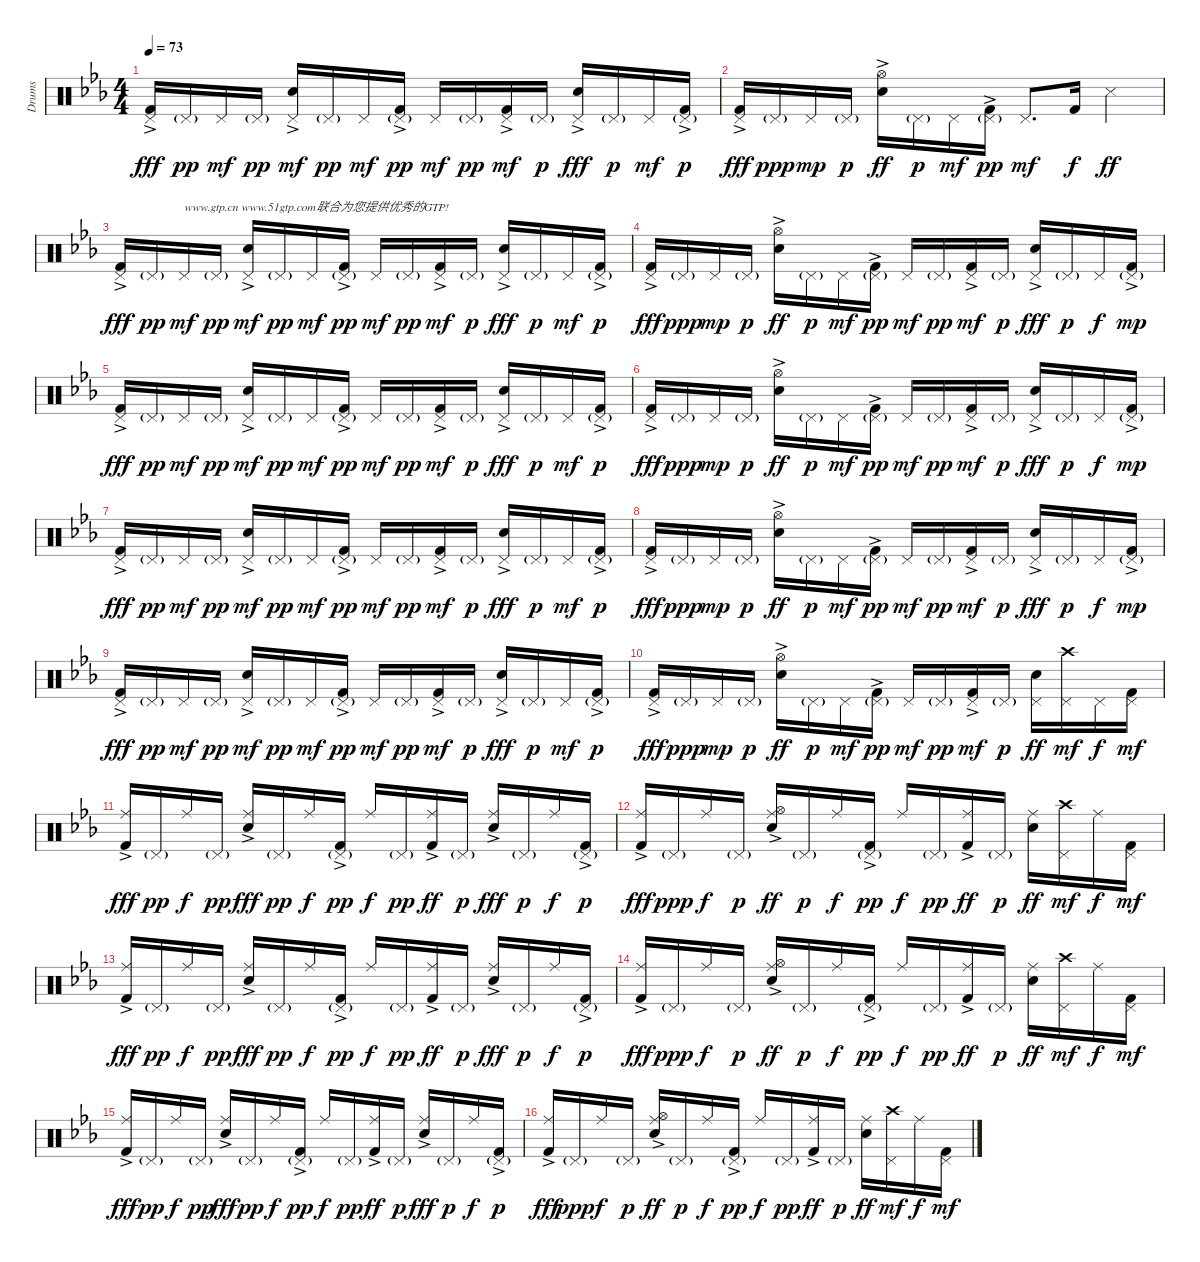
\track ("Drums" "Drums") {instrument percussion}
\staff {score}
\articulation defaults
\ts (4 4)
\tempo 73
\clef neutral
\ks eb
("Kick (hit) 2"{ac} "Pedal Hi-Hat (hit)").16{dy fff} "Pedal Hi-Hat (hit)"{g}.16{dy pp} "Pedal Hi-Hat (hit)".16{dy mf} "Pedal Hi-Hat (hit)"{g}.16{dy pp} ("Snare (hit) 2"{ac} "Pedal Hi-Hat (hit)").16{dy mf} "Pedal Hi-Hat (hit)"{g}.16{dy pp} "Pedal Hi-Hat (hit)".16{dy mf} ("Kick (hit) 2"{ac} "Pedal Hi-Hat (hit)"{g}).16{dy pp} "Pedal Hi-Hat (hit)".16{dy mf} "Pedal Hi-Hat (hit)"{g}.16{dy pp} ("Kick (hit) 2"{ac} "Pedal Hi-Hat (hit)").16{dy mf} "Pedal Hi-Hat (hit)"{g}.16{dy p} ("Snare (hit) 2"{ac} "Pedal Hi-Hat (hit)").16{dy fff} "Pedal Hi-Hat (hit)"{g}.16{dy p} "Pedal Hi-Hat (hit)".16{dy mf} ("Kick (hit) 2"{ac} "Pedal Hi-Hat (hit)"{g}).16{dy p} |
("Kick (hit) 2"{ac} "Pedal Hi-Hat (hit)").16{dy fff} "Pedal Hi-Hat (hit)"{g}.16{dy ppp} "Pedal Hi-Hat (hit)".16{dy mp} "Pedal Hi-Hat (hit)"{g}.16{dy p} ("Snare (hit) 2"{ac} "Hi-Hat (open)").16{dy ff} "Pedal Hi-Hat (hit)"{g}.16{dy p} "Pedal Hi-Hat (hit)".16{dy mf} ("Kick (hit) 2"{ac} "Pedal Hi-Hat (hit)"{g}).16{dy pp} "Pedal Hi-Hat (hit)".8{d dy mf} "Kick (hit) 2".16{dy f} "Snare (side stick) 3".4{dy ff} |
("Kick (hit) 2"{ac} "Pedal Hi-Hat (hit)").16{dy fff} "Pedal Hi-Hat (hit)"{g}.16{dy pp} "Pedal Hi-Hat (hit)".16{txt "www.gtp.cn www.51gtp.com联合为您提供优秀的GTP!" dy mf} "Pedal Hi-Hat (hit)"{g}.16{dy pp} ("Snare (hit) 2"{ac} "Pedal Hi-Hat (hit)").16{dy mf} "Pedal Hi-Hat (hit)"{g}.16{dy pp} "Pedal Hi-Hat (hit)".16{dy mf} ("Kick (hit) 2"{ac} "Pedal Hi-Hat (hit)"{g}).16{dy pp} "Pedal Hi-Hat (hit)".16{dy mf} "Pedal Hi-Hat (hit)"{g}.16{dy pp} ("Kick (hit) 2"{ac} "Pedal Hi-Hat (hit)").16{dy mf} "Pedal Hi-Hat (hit)"{g}.16{dy p} ("Snare (hit) 2"{ac} "Pedal Hi-Hat (hit)").16{dy fff} "Pedal Hi-Hat (hit)"{g}.16{dy p} "Pedal Hi-Hat (hit)".16{dy mf} ("Kick (hit) 2"{ac} "Pedal Hi-Hat (hit)"{g}).16{dy p} |
("Kick (hit) 2"{ac} "Pedal Hi-Hat (hit)").16{dy fff} "Pedal Hi-Hat (hit)"{g}.16{dy ppp} "Pedal Hi-Hat (hit)".16{dy mp} "Pedal Hi-Hat (hit)"{g}.16{dy p} ("Snare (hit) 2"{ac} "Hi-Hat (open)").16{dy ff} "Pedal Hi-Hat (hit)"{g}.16{dy p} "Pedal Hi-Hat (hit)".16{dy mf} ("Kick (hit) 2"{ac} "Pedal Hi-Hat (hit)"{g}).16{dy pp} "Pedal Hi-Hat (hit)".16{dy mf} "Pedal Hi-Hat (hit)"{g}.16{dy pp} ("Kick (hit) 2"{ac} "Pedal Hi-Hat (hit)").16{dy mf} "Pedal Hi-Hat (hit)"{g}.16{dy p} ("Snare (hit) 2"{ac} "Pedal Hi-Hat (hit)").16{dy fff} "Pedal Hi-Hat (hit)"{g}.16{dy p} "Pedal Hi-Hat (hit)".16{dy f} ("Kick (hit) 2"{ac} "Pedal Hi-Hat (hit)"{g}).16{dy mp} |
("Kick (hit) 2"{ac} "Pedal Hi-Hat (hit)").16{dy fff} "Pedal Hi-Hat (hit)"{g}.16{dy pp} "Pedal Hi-Hat (hit)".16{dy mf} "Pedal Hi-Hat (hit)"{g}.16{dy pp} ("Snare (hit) 2"{ac} "Pedal Hi-Hat (hit)").16{dy mf} "Pedal Hi-Hat (hit)"{g}.16{dy pp} "Pedal Hi-Hat (hit)".16{dy mf} ("Kick (hit) 2"{ac} "Pedal Hi-Hat (hit)"{g}).16{dy pp} "Pedal Hi-Hat (hit)".16{dy mf} "Pedal Hi-Hat (hit)"{g}.16{dy pp} ("Kick (hit) 2"{ac} "Pedal Hi-Hat (hit)").16{dy mf} "Pedal Hi-Hat (hit)"{g}.16{dy p} ("Snare (hit) 2"{ac} "Pedal Hi-Hat (hit)").16{dy fff} "Pedal Hi-Hat (hit)"{g}.16{dy p} "Pedal Hi-Hat (hit)".16{dy mf} ("Kick (hit) 2"{ac} "Pedal Hi-Hat (hit)"{g}).16{dy p} |
("Kick (hit) 2"{ac} "Pedal Hi-Hat (hit)").16{dy fff} "Pedal Hi-Hat (hit)"{g}.16{dy ppp} "Pedal Hi-Hat (hit)".16{dy mp} "Pedal Hi-Hat (hit)"{g}.16{dy p} ("Snare (hit) 2"{ac} "Hi-Hat (open)").16{dy ff} "Pedal Hi-Hat (hit)"{g}.16{dy p} "Pedal Hi-Hat (hit)".16{dy mf} ("Kick (hit) 2"{ac} "Pedal Hi-Hat (hit)"{g}).16{dy pp} "Pedal Hi-Hat (hit)".16{dy mf} "Pedal Hi-Hat (hit)"{g}.16{dy pp} ("Kick (hit) 2"{ac} "Pedal Hi-Hat (hit)").16{dy mf} "Pedal Hi-Hat (hit)"{g}.16{dy p} ("Snare (hit) 2"{ac} "Pedal Hi-Hat (hit)").16{dy fff} "Pedal Hi-Hat (hit)"{g}.16{dy p} "Pedal Hi-Hat (hit)".16{dy f} ("Kick (hit) 2"{ac} "Pedal Hi-Hat (hit)"{g}).16{dy mp} |
("Kick (hit) 2"{ac} "Pedal Hi-Hat (hit)").16{dy fff} "Pedal Hi-Hat (hit)"{g}.16{dy pp} "Pedal Hi-Hat (hit)".16{dy mf} "Pedal Hi-Hat (hit)"{g}.16{dy pp} ("Snare (hit) 2"{ac} "Pedal Hi-Hat (hit)").16{dy mf} "Pedal Hi-Hat (hit)"{g}.16{dy pp} "Pedal Hi-Hat (hit)".16{dy mf} ("Kick (hit) 2"{ac} "Pedal Hi-Hat (hit)"{g}).16{dy pp} "Pedal Hi-Hat (hit)".16{dy mf} "Pedal Hi-Hat (hit)"{g}.16{dy pp} ("Kick (hit) 2"{ac} "Pedal Hi-Hat (hit)").16{dy mf} "Pedal Hi-Hat (hit)"{g}.16{dy p} ("Snare (hit) 2"{ac} "Pedal Hi-Hat (hit)").16{dy fff} "Pedal Hi-Hat (hit)"{g}.16{dy p} "Pedal Hi-Hat (hit)".16{dy mf} ("Kick (hit) 2"{ac} "Pedal Hi-Hat (hit)"{g}).16{dy p} |
("Kick (hit) 2"{ac} "Pedal Hi-Hat (hit)").16{dy fff} "Pedal Hi-Hat (hit)"{g}.16{dy ppp} "Pedal Hi-Hat (hit)".16{dy mp} "Pedal Hi-Hat (hit)"{g}.16{dy p} ("Snare (hit) 2"{ac} "Hi-Hat (open)").16{dy ff} "Pedal Hi-Hat (hit)"{g}.16{dy p} "Pedal Hi-Hat (hit)".16{dy mf} ("Kick (hit) 2"{ac} "Pedal Hi-Hat (hit)"{g}).16{dy pp} "Pedal Hi-Hat (hit)".16{dy mf} "Pedal Hi-Hat (hit)"{g}.16{dy pp} ("Kick (hit) 2"{ac} "Pedal Hi-Hat (hit)").16{dy mf} "Pedal Hi-Hat (hit)"{g}.16{dy p} ("Snare (hit) 2"{ac} "Pedal Hi-Hat (hit)").16{dy fff} "Pedal Hi-Hat (hit)"{g}.16{dy p} "Pedal Hi-Hat (hit)".16{dy f} ("Kick (hit) 2"{ac} "Pedal Hi-Hat (hit)"{g}).16{dy mp} |
("Kick (hit) 2"{ac} "Pedal Hi-Hat (hit)").16{dy fff} "Pedal Hi-Hat (hit)"{g}.16{dy pp} "Pedal Hi-Hat (hit)".16{dy mf} "Pedal Hi-Hat (hit)"{g}.16{dy pp} ("Snare (hit) 2"{ac} "Pedal Hi-Hat (hit)").16{dy mf} "Pedal Hi-Hat (hit)"{g}.16{dy pp} "Pedal Hi-Hat (hit)".16{dy mf} ("Kick (hit) 2"{ac} "Pedal Hi-Hat (hit)"{g}).16{dy pp} "Pedal Hi-Hat (hit)".16{dy mf} "Pedal Hi-Hat (hit)"{g}.16{dy pp} ("Kick (hit) 2"{ac} "Pedal Hi-Hat (hit)").16{dy mf} "Pedal Hi-Hat (hit)"{g}.16{dy p} ("Snare (hit) 2"{ac} "Pedal Hi-Hat (hit)").16{dy fff} "Pedal Hi-Hat (hit)"{g}.16{dy p} "Pedal Hi-Hat (hit)".16{dy mf} ("Kick (hit) 2"{ac} "Pedal Hi-Hat (hit)"{g}).16{dy p} |
("Kick (hit) 2"{ac} "Pedal Hi-Hat (hit)").16{dy fff} "Pedal Hi-Hat (hit)"{g}.16{dy ppp} "Pedal Hi-Hat (hit)".16{dy mp} "Pedal Hi-Hat (hit)"{g}.16{dy p} ("Snare (hit) 2"{ac} "Hi-Hat (open)").16{dy ff} "Pedal Hi-Hat (hit)"{g}.16{dy p} "Pedal Hi-Hat (hit)".16{dy mf} ("Kick (hit) 2"{ac} "Pedal Hi-Hat (hit)"{g}).16{dy pp} "Pedal Hi-Hat (hit)".16{dy mf} "Pedal Hi-Hat (hit)"{g}.16{dy pp} ("Kick (hit) 2"{ac} "Pedal Hi-Hat (hit)").16{dy mf} "Pedal Hi-Hat (hit)"{g}.16{dy p} ("Snare (hit) 2" "Pedal Hi-Hat (hit)").16{dy ff} ("Pedal Hi-Hat (hit)" "Crash high (hit)").16{dy mf} "Pedal Hi-Hat (hit)".16{dy f} ("Kick (hit) 2" "Pedal Hi-Hat (hit)").16{dy mf} |
("Kick (hit) 2"{ac} "Ride (middle)").16{dy fff} "Pedal Hi-Hat (hit)"{g}.16{dy pp} "Ride (middle)".16{dy f} "Pedal Hi-Hat (hit)"{g}.16{dy pp} ("Snare (hit) 2"{ac} "Ride (middle)").16{dy fff} "Pedal Hi-Hat (hit)"{g}.16{dy pp} "Ride (middle)".16{dy f} ("Kick (hit) 2"{ac} "Pedal Hi-Hat (hit)"{g}).16{dy pp} "Ride (middle)".16{dy f} "Pedal Hi-Hat (hit)"{g}.16{dy pp} ("Kick (hit) 2"{ac} "Ride (middle)").16{dy ff} "Pedal Hi-Hat (hit)"{g}.16{dy p} ("Snare (hit) 2"{ac} "Ride (middle)").16{dy fff} "Pedal Hi-Hat (hit)"{g}.16{dy p} "Ride (middle)".16{dy f} ("Kick (hit) 2"{ac} "Pedal Hi-Hat (hit)"{g}).16{dy p} |
("Kick (hit) 2"{ac} "Ride (middle)").16{dy fff} "Pedal Hi-Hat (hit)"{g}.16{dy ppp} "Ride (middle)".16{dy f} "Pedal Hi-Hat (hit)"{g}.16{dy p} ("Snare (hit) 2"{ac} "Hi-Hat (open)" "Ride (middle)").16{dy ff} "Pedal Hi-Hat (hit)"{g}.16{dy p} "Ride (middle)".16{dy f} ("Kick (hit) 2"{ac} "Pedal Hi-Hat (hit)"{g}).16{dy pp} "Ride (middle)".16{dy f} "Pedal Hi-Hat (hit)"{g}.16{dy pp} ("Kick (hit) 2"{ac} "Ride (middle)").16{dy ff} "Pedal Hi-Hat (hit)"{g}.16{dy p} ("Snare (hit) 2" "Ride (middle)").16{dy ff} ("Pedal Hi-Hat (hit)" "Crash high (hit)").16{dy mf} "Ride (middle)".16{dy f} ("Kick (hit) 2" "Pedal Hi-Hat (hit)").16{dy mf} |
("Kick (hit) 2"{ac} "Ride (middle)").16{dy fff} "Pedal Hi-Hat (hit)"{g}.16{dy pp} "Ride (middle)".16{dy f} "Pedal Hi-Hat (hit)"{g}.16{dy pp} ("Snare (hit) 2"{ac} "Ride (middle)").16{dy fff} "Pedal Hi-Hat (hit)"{g}.16{dy pp} "Ride (middle)".16{dy f} ("Kick (hit) 2"{ac} "Pedal Hi-Hat (hit)"{g}).16{dy pp} "Ride (middle)".16{dy f} "Pedal Hi-Hat (hit)"{g}.16{dy pp} ("Kick (hit) 2"{ac} "Ride (middle)").16{dy ff} "Pedal Hi-Hat (hit)"{g}.16{dy p} ("Snare (hit) 2"{ac} "Ride (middle)").16{dy fff} "Pedal Hi-Hat (hit)"{g}.16{dy p} "Ride (middle)".16{dy f} ("Kick (hit) 2"{ac} "Pedal Hi-Hat (hit)"{g}).16{dy p} |
("Kick (hit) 2"{ac} "Ride (middle)").16{dy fff} "Pedal Hi-Hat (hit)"{g}.16{dy ppp} "Ride (middle)".16{dy f} "Pedal Hi-Hat (hit)"{g}.16{dy p} ("Snare (hit) 2"{ac} "Hi-Hat (open)" "Ride (middle)").16{dy ff} "Pedal Hi-Hat (hit)"{g}.16{dy p} "Ride (middle)".16{dy f} ("Kick (hit) 2"{ac} "Pedal Hi-Hat (hit)"{g}).16{dy pp} "Ride (middle)".16{dy f} "Pedal Hi-Hat (hit)"{g}.16{dy pp} ("Kick (hit) 2"{ac} "Ride (middle)").16{dy ff} "Pedal Hi-Hat (hit)"{g}.16{dy p} ("Snare (hit) 2" "Ride (middle)").16{dy ff} ("Pedal Hi-Hat (hit)" "Crash high (hit)").16{dy mf} "Ride (middle)".16{dy f} ("Kick (hit) 2" "Pedal Hi-Hat (hit)").16{dy mf} |
("Kick (hit) 2"{ac} "Ride (middle)").16{dy fff} "Pedal Hi-Hat (hit)"{g}.16{dy pp} "Ride (middle)".16{dy f} "Pedal Hi-Hat (hit)"{g}.16{dy pp} ("Snare (hit) 2"{ac} "Ride (middle)").16{dy fff} "Pedal Hi-Hat (hit)"{g}.16{dy pp} "Ride (middle)".16{dy f} ("Kick (hit) 2"{ac} "Pedal Hi-Hat (hit)"{g}).16{dy pp} "Ride (middle)".16{dy f} "Pedal Hi-Hat (hit)"{g}.16{dy pp} ("Kick (hit) 2"{ac} "Ride (middle)").16{dy ff} "Pedal Hi-Hat (hit)"{g}.16{dy p} ("Snare (hit) 2"{ac} "Ride (middle)").16{dy fff} "Pedal Hi-Hat (hit)"{g}.16{dy p} "Ride (middle)".16{dy f} ("Kick (hit) 2"{ac} "Pedal Hi-Hat (hit)"{g}).16{dy p} |
("Kick (hit) 2"{ac} "Ride (middle)").16{dy fff} "Pedal Hi-Hat (hit)"{g}.16{dy ppp} "Ride (middle)".16{dy f} "Pedal Hi-Hat (hit)"{g}.16{dy p} ("Snare (hit) 2"{ac} "Hi-Hat (open)" "Ride (middle)").16{dy ff} "Pedal Hi-Hat (hit)"{g}.16{dy p} "Ride (middle)".16{dy f} ("Kick (hit) 2"{ac} "Pedal Hi-Hat (hit)"{g}).16{dy pp} "Ride (middle)".16{dy f} "Pedal Hi-Hat (hit)"{g}.16{dy pp} ("Kick (hit) 2"{ac} "Ride (middle)").16{dy ff} "Pedal Hi-Hat (hit)"{g}.16{dy p} ("Snare (hit) 2" "Ride (middle)").16{dy ff} ("Pedal Hi-Hat (hit)" "Crash high (hit)").16{dy mf} "Ride (middle)".16{dy f} ("Kick (hit) 2" "Pedal Hi-Hat (hit)").16{dy mf}
